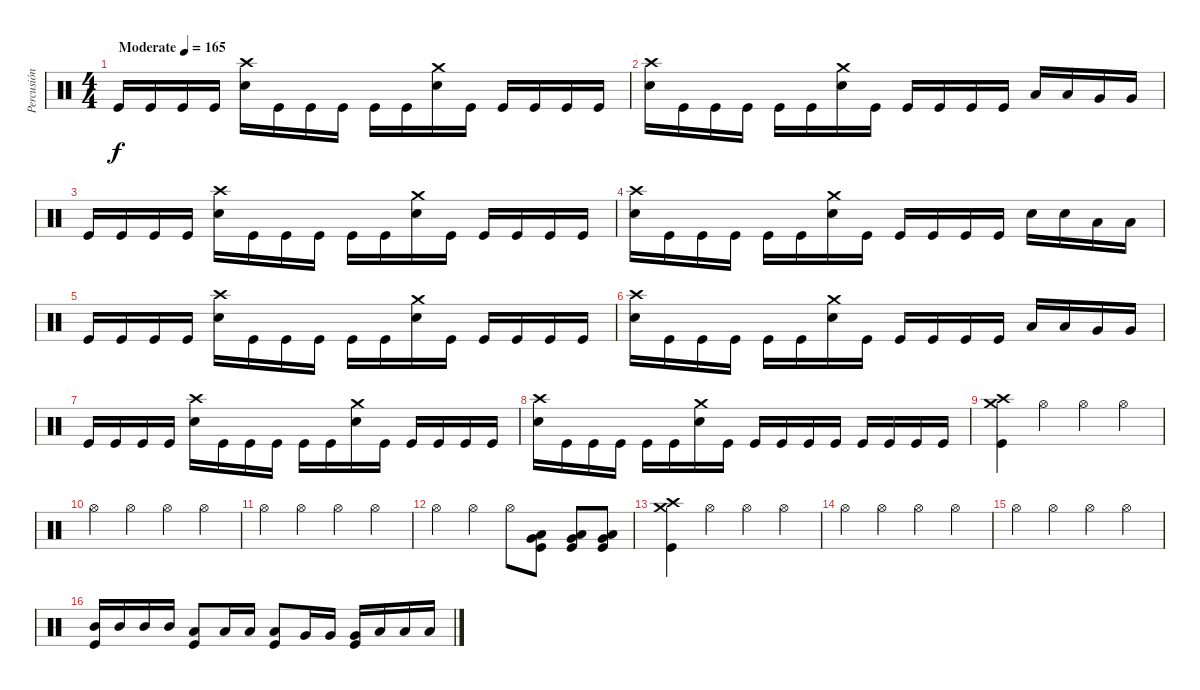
\track ("Percusión" "Percusión") {instrument percussion}
\staff {score}
\articulation defaults
\ts (4 4)
\tempo (165 "Moderate")
\clef neutral
\ks c "Kick (hit)".16{dy f} "Kick (hit)".16 "Kick (hit)".16 "Kick (hit)".16
("Crash high (hit)" "Electric Snare (hit)").16 "Kick (hit)".16 "Kick (hit)".16 "Kick (hit)".16 "Kick (hit)".16 "Kick (hit)".16 ("Crash medium (hit)" "Electric Snare (hit)").16 "Kick (hit)".16 "Kick (hit)".16 "Kick (hit)".16 "Kick (hit)".16 "Kick (hit)".16 |
("Crash high (hit)" "Electric Snare (hit)").16 "Kick (hit)".16 "Kick (hit)".16 "Kick (hit)".16 "Kick (hit)".16 "Kick (hit)".16 ("Crash medium (hit)" "Electric Snare (hit)").16 "Kick (hit)".16 "Kick (hit)".16 "Kick (hit)".16 "Kick (hit)".16 "Kick (hit)".16 "Low Tom (hit)".16 "Low Tom (hit)".16 "Very Low Tom (hit)".16 "Very Low Tom (hit)".16 |
"Kick (hit)".16 "Kick (hit)".16 "Kick (hit)".16 "Kick (hit)".16 ("Crash high (hit)" "Electric Snare (hit)").16 "Kick (hit)".16 "Kick (hit)".16 "Kick (hit)".16 "Kick (hit)".16 "Kick (hit)".16 ("Crash medium (hit)" "Electric Snare (hit)").16 "Kick (hit)".16 "Kick (hit)".16 "Kick (hit)".16 "Kick (hit)".16 "Kick (hit)".16 |
("Crash high (hit)" "Electric Snare (hit)").16 "Kick (hit)".16 "Kick (hit)".16 "Kick (hit)".16 "Kick (hit)".16 "Kick (hit)".16 ("Crash medium (hit)" "Electric Snare (hit)").16 "Kick (hit)".16 "Kick (hit)".16 "Kick (hit)".16 "Kick (hit)".16 "Kick (hit)".16 "Electric Snare (hit)".16 "Electric Snare (hit)".16 "Low Tom (hit)".16 "Low Tom (hit)".16 |
"Kick (hit)".16 "Kick (hit)".16 "Kick (hit)".16 "Kick (hit)".16 ("Crash high (hit)" "Electric Snare (hit)").16 "Kick (hit)".16 "Kick (hit)".16 "Kick (hit)".16 "Kick (hit)".16 "Kick (hit)".16 ("Crash medium (hit)" "Electric Snare (hit)").16 "Kick (hit)".16 "Kick (hit)".16 "Kick (hit)".16 "Kick (hit)".16 "Kick (hit)".16 |
("Crash high (hit)" "Electric Snare (hit)").16 "Kick (hit)".16 "Kick (hit)".16 "Kick (hit)".16 "Kick (hit)".16 "Kick (hit)".16 ("Crash medium (hit)" "Electric Snare (hit)").16 "Kick (hit)".16 "Kick (hit)".16 "Kick (hit)".16 "Kick (hit)".16 "Kick (hit)".16 "Low Tom (hit)".16 "Low Tom (hit)".16 "Very Low Tom (hit)".16 "Very Low Tom (hit)".16 |
"Kick (hit)".16 "Kick (hit)".16 "Kick (hit)".16 "Kick (hit)".16 ("Crash high (hit)" "Electric Snare (hit)").16 "Kick (hit)".16 "Kick (hit)".16 "Kick (hit)".16 "Kick (hit)".16 "Kick (hit)".16 ("Crash medium (hit)" "Electric Snare (hit)").16 "Kick (hit)".16 "Kick (hit)".16 "Kick (hit)".16 "Kick (hit)".16 "Kick (hit)".16 |
("Crash high (hit)" "Electric Snare (hit)").16 "Kick (hit)".16 "Kick (hit)".16 "Kick (hit)".16 "Kick (hit)".16 "Kick (hit)".16 ("Crash medium (hit)" "Electric Snare (hit)").16 "Kick (hit)".16 "Kick (hit)".16 "Kick (hit)".16 "Kick (hit)".16 "Kick (hit)".16 "Kick (hit)".16 "Kick (hit)".16 "Kick (hit)".16 "Kick (hit)".16 |
("Crash medium (hit)" "Crash high (hit)" "Kick (hit)").4 "Hi-Hat (open)".4 "Hi-Hat (open)".4 "Hi-Hat (open)".4 |
"Hi-Hat (open)".4 "Hi-Hat (open)".4 "Hi-Hat (open)".4 "Hi-Hat (open)".4 |
"Hi-Hat (open)".4 "Hi-Hat (open)".4 "Hi-Hat (open)".4 "Hi-Hat (open)".4 |
"Hi-Hat (open)".4 "Hi-Hat (open)".4 "Hi-Hat (open)".8 ("Very Low Tom (hit)" "Low Tom (hit)" "Kick (hit)").8 ("Very Low Tom (hit)" "Low Tom (hit)" "Kick (hit)").8 ("Very Low Tom (hit)" "Low Tom (hit)" "Kick (hit)").8 |
("Crash medium (hit)" "Crash high (hit)" "Kick (hit)").4 "Hi-Hat (open)".4 "Hi-Hat (open)".4 "Hi-Hat (open)".4 |
"Hi-Hat (open)".4 "Hi-Hat (open)".4 "Hi-Hat (open)".4 "Hi-Hat (open)".4 |
"Hi-Hat (open)".4 "Hi-Hat (open)".4 "Hi-Hat (open)".4 "Hi-Hat (open)".4 |
("Mid Tom (hit)" "Kick (hit)").16 "Mid Tom (hit)".16 "Mid Tom (hit)".16 "Mid Tom (hit)".16 ("Low Tom (hit)" "Kick (hit)").8 "Low Tom (hit)".16 "Low Tom (hit)".16 ("Low Tom (hit)" "Kick (hit)").8 "Very Low Tom (hit)".16 "Very Low Tom (hit)".16 ("Very Low Tom (hit)" "Kick (hit)").16 "Low Floor Tom (hit)".16 "Low Floor Tom (hit)".16 "Low Floor Tom (hit)".16
